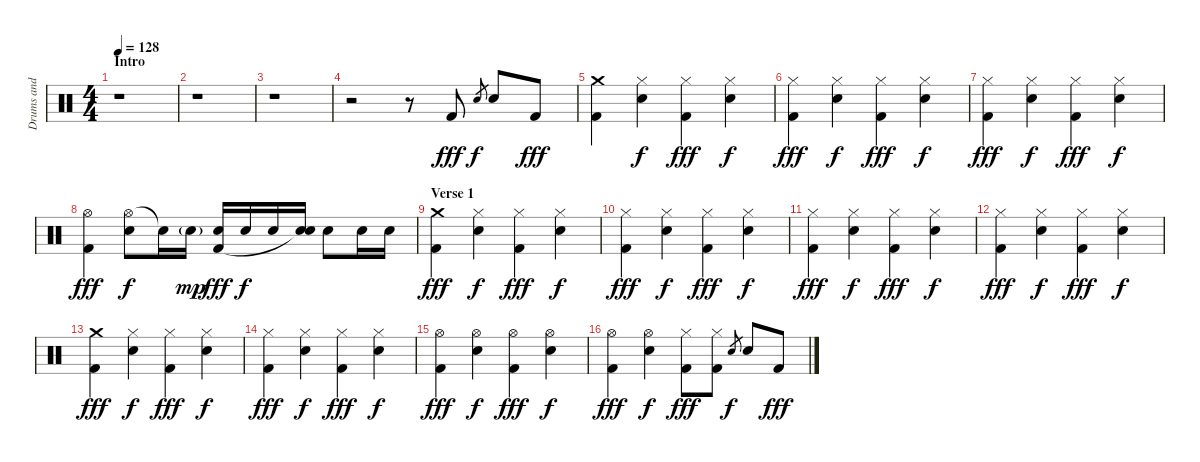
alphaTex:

\track ("Drums and Percussion" "Drums and ") {instrument percussion}
\staff {score}
\articulation defaults
\ts (4 4)
\section ("" "Intro")
\tempo 128
\clef neutral
\ks c
r.1{dy fff} |
r.1 |
r.1 |
r.2 r.8 "Kick (hit) 2".8 "Electric Snare (hit)".8{gr dy f} "Electric Snare (hit)".8 "Kick (hit) 2".8{dy fff} |
("Crash medium (hit)" "Kick (hit) 2").4 ("Hi-Hat (closed)" "Electric Snare (hit)").4{dy f} ("Hi-Hat (closed)" "Kick (hit) 2").4{dy fff} ("Hi-Hat (closed)" "Electric Snare (hit)").4{dy f} |
("Hi-Hat (closed)" "Kick (hit) 2").4{dy fff} ("Hi-Hat (closed)" "Electric Snare (hit)").4{dy f} ("Hi-Hat (closed)" "Kick (hit) 2").4{dy fff} ("Hi-Hat (closed)" "Electric Snare (hit)").4{dy f} |
("Hi-Hat (closed)" "Kick (hit) 2").4{dy fff} ("Hi-Hat (closed)" "Electric Snare (hit)").4{dy f} ("Hi-Hat (closed)" "Kick (hit) 2").4{dy fff} ("Hi-Hat (closed)" "Electric Snare (hit)").4{dy f} |
("Hi-Hat (open)" "Kick (hit) 2").4{dy fff} ("Hi-Hat (open)" "Electric Snare (hit)").8{dy f} "Snare (hit)"{t}.16 "Electric Snare (hit)"{g}.16{dy mp} ("Electric Snare (hit)" "Kick (hit) 2").16{dy fff} "Electric Snare (hit)".16{dy f} "Electric Snare (hit)".16 ("Electric Snare (hit)" "Snare (hit)"{t}).16 "Electric Snare (hit)".8 "Electric Snare (hit)".16 "Electric Snare (hit)".16 |
\section ("" "Verse 1")
("Crash medium (hit)" "Kick (hit) 2").4{dy fff} ("Hi-Hat (closed)" "Electric Snare (hit)").4{dy f} ("Hi-Hat (closed)" "Kick (hit) 2").4{dy fff} ("Hi-Hat (closed)" "Electric Snare (hit)").4{dy f} |
("Hi-Hat (closed)" "Kick (hit) 2").4{dy fff} ("Hi-Hat (closed)" "Electric Snare (hit)").4{dy f} ("Hi-Hat (closed)" "Kick (hit) 2").4{dy fff} ("Hi-Hat (closed)" "Electric Snare (hit)").4{dy f} |
("Hi-Hat (closed)" "Kick (hit) 2").4{dy fff} ("Hi-Hat (closed)" "Electric Snare (hit)").4{dy f} ("Hi-Hat (closed)" "Kick (hit) 2").4{dy fff} ("Hi-Hat (closed)" "Electric Snare (hit)").4{dy f} |
("Hi-Hat (closed)" "Kick (hit) 2").4{dy fff} ("Hi-Hat (closed)" "Electric Snare (hit)").4{dy f} ("Hi-Hat (closed)" "Kick (hit) 2").4{dy fff} ("Hi-Hat (closed)" "Electric Snare (hit)").4{dy f} |
("Crash medium (hit)" "Kick (hit) 2").4{dy fff} ("Hi-Hat (closed)" "Electric Snare (hit)").4{dy f} ("Hi-Hat (closed)" "Kick (hit) 2").4{dy fff} ("Hi-Hat (closed)" "Electric Snare (hit)").4{dy f} |
("Hi-Hat (closed)" "Kick (hit) 2").4{dy fff} ("Hi-Hat (closed)" "Electric Snare (hit)").4{dy f} ("Hi-Hat (closed)" "Kick (hit) 2").4{dy fff} ("Hi-Hat (closed)" "Electric Snare (hit)").4{dy f} |
("Hi-Hat (open)" "Kick (hit) 2").4{dy fff} ("Hi-Hat (open)" "Electric Snare (hit)").4{dy f} ("Hi-Hat (open)" "Kick (hit) 2").4{dy fff} ("Hi-Hat (open)" "Electric Snare (hit)").4{dy f} |
("Hi-Hat (open)" "Kick (hit) 2").4{dy fff} ("Hi-Hat (open)" "Electric Snare (hit)").4{dy f} ("Hi-Hat (closed)" "Kick (hit) 2").8{dy fff} ("Hi-Hat (closed)" "Kick (hit) 2").8 "Electric Snare (hit)".8{gr dy f} "Electric Snare (hit)".8 "Kick (hit) 2".8{dy fff}
